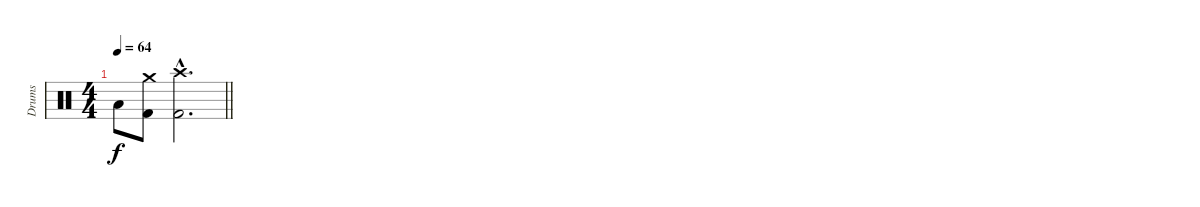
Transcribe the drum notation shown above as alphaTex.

\track ("Drums" "Drums") {instrument percussion}
\staff {score}
\articulation defaults
\ts (4 4)
\tempo 64
\clef neutral
\barLineRight lightlight
\ks c "Low Floor Tom (hit)".8{dy f}
("Crash medium (hit)" "Kick (hit) 2").8 ("Crash high (hit)"{hac} "Kick (hit) 2"{hac}).2{d}
